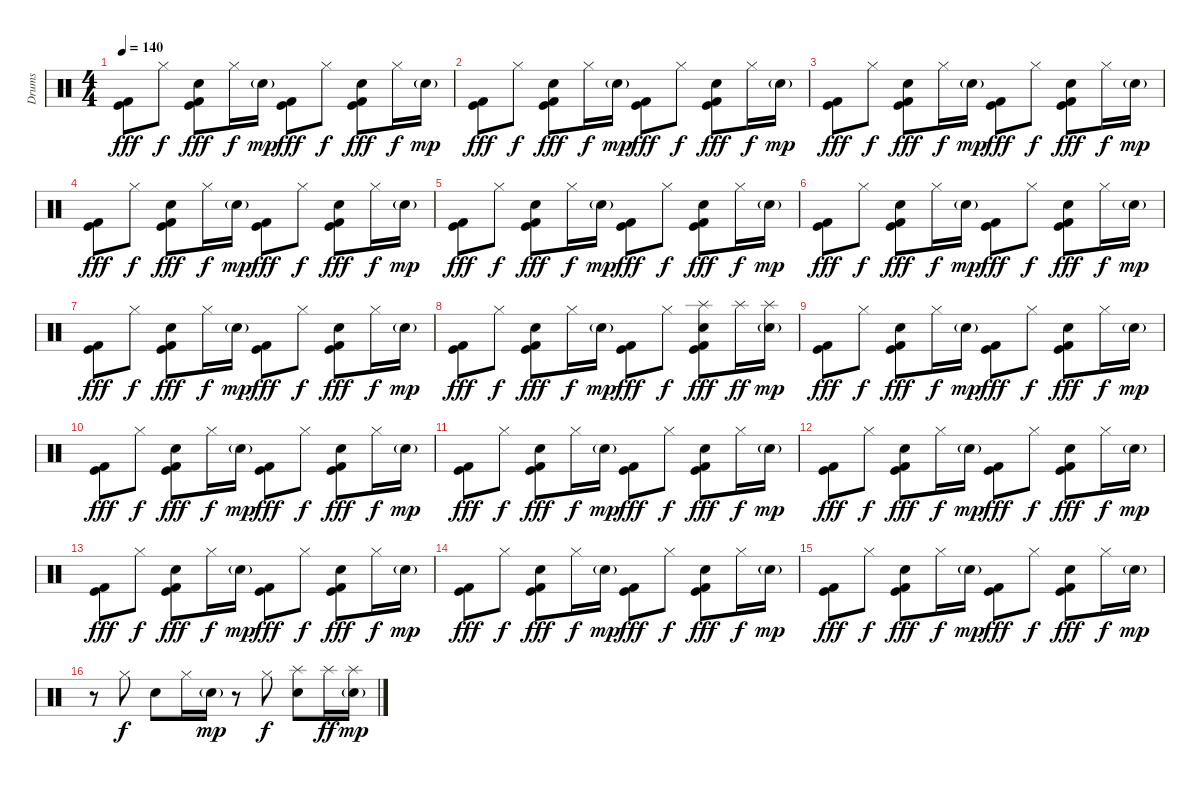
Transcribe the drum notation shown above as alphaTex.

\track ("Drums" "Drums") {instrument percussion}
\staff {score}
\articulation defaults
\ts (4 4)
\tempo 140
\clef neutral
\ks c
("Kick (hit) 2" "Kick (hit)").8{dy fff} "Hi-Hat (closed)".8{dy f} ("Hand Clap (hit)" "Kick (hit) 2" "Kick (hit)").8{dy fff} "Hi-Hat (closed)".16{dy f} "Hand Clap (hit)"{g}.16{dy mp} ("Kick (hit) 2" "Kick (hit)").8{dy fff} "Hi-Hat (closed)".8{dy f} ("Hand Clap (hit)" "Kick (hit) 2" "Kick (hit)").8{dy fff} "Hi-Hat (closed)".16{dy f} "Hand Clap (hit)"{g}.16{dy mp} |
("Kick (hit) 2" "Kick (hit)").8{dy fff} "Hi-Hat (closed)".8{dy f} ("Hand Clap (hit)" "Kick (hit) 2" "Kick (hit)").8{dy fff} "Hi-Hat (closed)".16{dy f} "Hand Clap (hit)"{g}.16{dy mp} ("Kick (hit) 2" "Kick (hit)").8{dy fff} "Hi-Hat (closed)".8{dy f} ("Hand Clap (hit)" "Kick (hit) 2" "Kick (hit)").8{dy fff} "Hi-Hat (closed)".16{dy f} "Hand Clap (hit)"{g}.16{dy mp} |
("Kick (hit) 2" "Kick (hit)").8{dy fff} "Hi-Hat (closed)".8{dy f} ("Hand Clap (hit)" "Kick (hit) 2" "Kick (hit)").8{dy fff} "Hi-Hat (closed)".16{dy f} "Hand Clap (hit)"{g}.16{dy mp} ("Kick (hit) 2" "Kick (hit)").8{dy fff} "Hi-Hat (closed)".8{dy f} ("Hand Clap (hit)" "Kick (hit) 2" "Kick (hit)").8{dy fff} "Hi-Hat (closed)".16{dy f} "Hand Clap (hit)"{g}.16{dy mp} |
("Kick (hit) 2" "Kick (hit)").8{dy fff} "Hi-Hat (closed)".8{dy f} ("Hand Clap (hit)" "Kick (hit) 2" "Kick (hit)").8{dy fff} "Hi-Hat (closed)".16{dy f} "Hand Clap (hit)"{g}.16{dy mp} ("Kick (hit) 2" "Kick (hit)").8{dy fff} "Hi-Hat (closed)".8{dy f} ("Hand Clap (hit)" "Kick (hit) 2" "Kick (hit)").8{dy fff} "Hi-Hat (closed)".16{dy f} "Hand Clap (hit)"{g}.16{dy mp} |
("Kick (hit) 2" "Kick (hit)").8{dy fff} "Hi-Hat (closed)".8{dy f} ("Hand Clap (hit)" "Kick (hit) 2" "Kick (hit)").8{dy fff} "Hi-Hat (closed)".16{dy f} "Hand Clap (hit)"{g}.16{dy mp} ("Kick (hit) 2" "Kick (hit)").8{dy fff} "Hi-Hat (closed)".8{dy f} ("Hand Clap (hit)" "Kick (hit) 2" "Kick (hit)").8{dy fff} "Hi-Hat (closed)".16{dy f} "Hand Clap (hit)"{g}.16{dy mp} |
("Kick (hit) 2" "Kick (hit)").8{dy fff} "Hi-Hat (closed)".8{dy f} ("Hand Clap (hit)" "Kick (hit) 2" "Kick (hit)").8{dy fff} "Hi-Hat (closed)".16{dy f} "Hand Clap (hit)"{g}.16{dy mp} ("Kick (hit) 2" "Kick (hit)").8{dy fff} "Hi-Hat (closed)".8{dy f} ("Hand Clap (hit)" "Kick (hit) 2" "Kick (hit)").8{dy fff} "Hi-Hat (closed)".16{dy f} "Hand Clap (hit)"{g}.16{dy mp} |
("Kick (hit) 2" "Kick (hit)").8{dy fff} "Hi-Hat (closed)".8{dy f} ("Hand Clap (hit)" "Kick (hit) 2" "Kick (hit)").8{dy fff} "Hi-Hat (closed)".16{dy f} "Hand Clap (hit)"{g}.16{dy mp} ("Kick (hit) 2" "Kick (hit)").8{dy fff} "Hi-Hat (closed)".8{dy f} ("Hand Clap (hit)" "Kick (hit) 2" "Kick (hit)").8{dy fff} "Hi-Hat (closed)".16{dy f} "Hand Clap (hit)"{g}.16{dy mp} |
("Kick (hit) 2" "Kick (hit)").8{dy fff} "Hi-Hat (closed)".8{dy f} ("Hand Clap (hit)" "Kick (hit) 2" "Kick (hit)").8{dy fff} "Hi-Hat (closed)".16{dy f} "Hand Clap (hit)"{g}.16{dy mp} ("Kick (hit) 2" "Kick (hit)").8{dy fff} "Hi-Hat (closed)".8{dy f} ("Splash (hit)" "Hand Clap (hit)" "Kick (hit) 2" "Kick (hit)").8{dy fff} "Splash (hit)".16{dy ff} ("Splash (hit)" "Hand Clap (hit)"{g}).16{dy mp} |
("Kick (hit) 2" "Kick (hit)").8{dy fff} "Hi-Hat (closed)".8{dy f} ("Hand Clap (hit)" "Kick (hit) 2" "Kick (hit)").8{dy fff} "Hi-Hat (closed)".16{dy f} "Hand Clap (hit)"{g}.16{dy mp} ("Kick (hit) 2" "Kick (hit)").8{dy fff} "Hi-Hat (closed)".8{dy f} ("Hand Clap (hit)" "Kick (hit) 2" "Kick (hit)").8{dy fff} "Hi-Hat (closed)".16{dy f} "Hand Clap (hit)"{g}.16{dy mp} |
("Kick (hit) 2" "Kick (hit)").8{dy fff} "Hi-Hat (closed)".8{dy f} ("Hand Clap (hit)" "Kick (hit) 2" "Kick (hit)").8{dy fff} "Hi-Hat (closed)".16{dy f} "Hand Clap (hit)"{g}.16{dy mp} ("Kick (hit) 2" "Kick (hit)").8{dy fff} "Hi-Hat (closed)".8{dy f} ("Hand Clap (hit)" "Kick (hit) 2" "Kick (hit)").8{dy fff} "Hi-Hat (closed)".16{dy f} "Hand Clap (hit)"{g}.16{dy mp} |
("Kick (hit) 2" "Kick (hit)").8{dy fff} "Hi-Hat (closed)".8{dy f} ("Hand Clap (hit)" "Kick (hit) 2" "Kick (hit)").8{dy fff} "Hi-Hat (closed)".16{dy f} "Hand Clap (hit)"{g}.16{dy mp} ("Kick (hit) 2" "Kick (hit)").8{dy fff} "Hi-Hat (closed)".8{dy f} ("Hand Clap (hit)" "Kick (hit) 2" "Kick (hit)").8{dy fff} "Hi-Hat (closed)".16{dy f} "Hand Clap (hit)"{g}.16{dy mp} |
("Kick (hit) 2" "Kick (hit)").8{dy fff} "Hi-Hat (closed)".8{dy f} ("Hand Clap (hit)" "Kick (hit) 2" "Kick (hit)").8{dy fff} "Hi-Hat (closed)".16{dy f} "Hand Clap (hit)"{g}.16{dy mp} ("Kick (hit) 2" "Kick (hit)").8{dy fff} "Hi-Hat (closed)".8{dy f} ("Hand Clap (hit)" "Kick (hit) 2" "Kick (hit)").8{dy fff} "Hi-Hat (closed)".16{dy f} "Hand Clap (hit)"{g}.16{dy mp} |
("Kick (hit) 2" "Kick (hit)").8{dy fff} "Hi-Hat (closed)".8{dy f} ("Hand Clap (hit)" "Kick (hit) 2" "Kick (hit)").8{dy fff} "Hi-Hat (closed)".16{dy f} "Hand Clap (hit)"{g}.16{dy mp} ("Kick (hit) 2" "Kick (hit)").8{dy fff} "Hi-Hat (closed)".8{dy f} ("Hand Clap (hit)" "Kick (hit) 2" "Kick (hit)").8{dy fff} "Hi-Hat (closed)".16{dy f} "Hand Clap (hit)"{g}.16{dy mp} |
("Kick (hit) 2" "Kick (hit)").8{dy fff} "Hi-Hat (closed)".8{dy f} ("Hand Clap (hit)" "Kick (hit) 2" "Kick (hit)").8{dy fff} "Hi-Hat (closed)".16{dy f} "Hand Clap (hit)"{g}.16{dy mp} ("Kick (hit) 2" "Kick (hit)").8{dy fff} "Hi-Hat (closed)".8{dy f} ("Hand Clap (hit)" "Kick (hit) 2" "Kick (hit)").8{dy fff} "Hi-Hat (closed)".16{dy f} "Hand Clap (hit)"{g}.16{dy mp} |
("Kick (hit) 2" "Kick (hit)").8{dy fff} "Hi-Hat (closed)".8{dy f} ("Hand Clap (hit)" "Kick (hit) 2" "Kick (hit)").8{dy fff} "Hi-Hat (closed)".16{dy f} "Hand Clap (hit)"{g}.16{dy mp} ("Kick (hit) 2" "Kick (hit)").8{dy fff} "Hi-Hat (closed)".8{dy f} ("Hand Clap (hit)" "Kick (hit) 2" "Kick (hit)").8{dy fff} "Hi-Hat (closed)".16{dy f} "Hand Clap (hit)"{g}.16{dy mp} |
r.8 "Hi-Hat (closed)".8{dy f} "Hand Clap (hit)".8 "Hi-Hat (closed)".16 "Hand Clap (hit)"{g}.16{dy mp} r.8 "Hi-Hat (closed)".8{dy f} ("Splash (hit)" "Hand Clap (hit)").8 "Splash (hit)".16{dy ff} ("Splash (hit)" "Hand Clap (hit)"{g}).16{dy mp}
